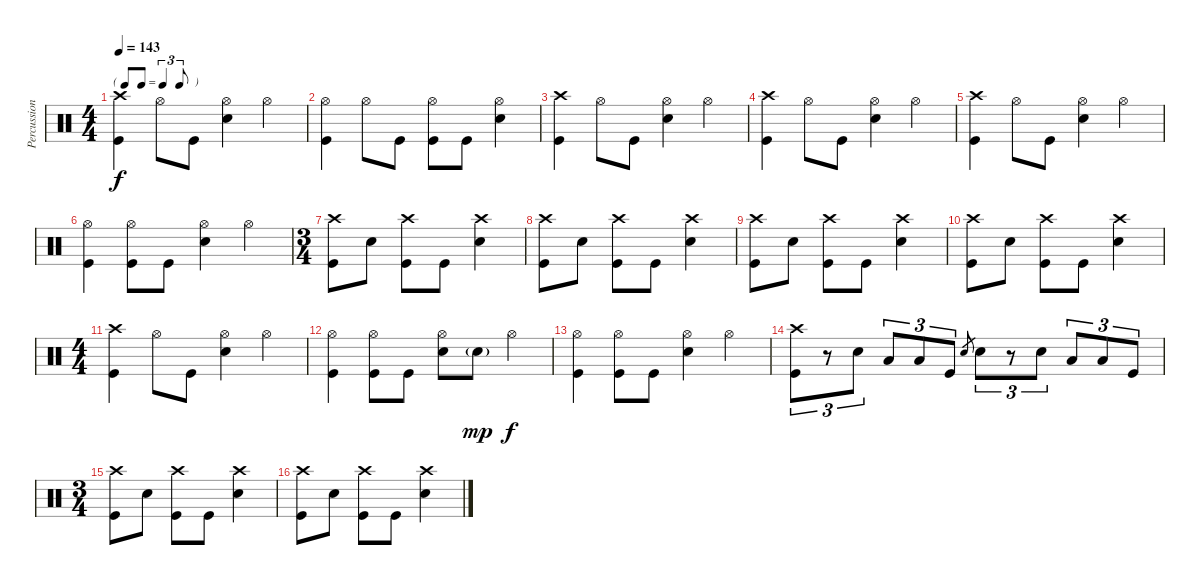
\track ("Percussion" "Percussion") {instrument percussion}
\staff {score}
\articulation defaults
\ts (4 4)
\tf triplet8th
\tempo 143
\clef neutral
\ks c
("Crash high (hit)" "Kick (hit)").4{dy f} "Hi-Hat (open)".8 "Kick (hit)".8 ("Hi-Hat (open)" "Electric Snare (hit)").4 "Hi-Hat (open)".4 |
("Hi-Hat (open)" "Kick (hit)").4 "Hi-Hat (open)".8 "Kick (hit)".8 ("Hi-Hat (open)" "Kick (hit)").8 "Kick (hit)".8 ("Hi-Hat (open)" "Electric Snare (hit)").4 |
("Crash high (hit)" "Kick (hit)").4 "Hi-Hat (open)".8 "Kick (hit)".8 ("Hi-Hat (open)" "Electric Snare (hit)").4 "Hi-Hat (open)".4 |
("Crash high (hit)" "Kick (hit)").4 "Hi-Hat (open)".8 "Kick (hit)".8 ("Hi-Hat (open)" "Electric Snare (hit)").4 "Hi-Hat (open)".4 |
("Crash high (hit)" "Kick (hit)").4 "Hi-Hat (open)".8 "Kick (hit)".8 ("Hi-Hat (open)" "Electric Snare (hit)").4 "Hi-Hat (open)".4 |
("Hi-Hat (open)" "Kick (hit)").4 ("Hi-Hat (open)" "Kick (hit)").8 "Kick (hit)".8 ("Hi-Hat (open)" "Electric Snare (hit)").4 "Hi-Hat (open)".4 |
\ts (3 4)
("Crash high (hit)" "Kick (hit)").8 "Electric Snare (hit)".8 ("Crash high (hit)" "Kick (hit)").8 "Kick (hit)".8 ("Crash high (hit)" "Electric Snare (hit)").4 |
("Crash high (hit)" "Kick (hit)").8 "Electric Snare (hit)".8 ("Crash high (hit)" "Kick (hit)").8 "Kick (hit)".8 ("Crash high (hit)" "Electric Snare (hit)").4 |
("Crash high (hit)" "Kick (hit)").8 "Electric Snare (hit)".8 ("Crash high (hit)" "Kick (hit)").8 "Kick (hit)".8 ("Crash high (hit)" "Electric Snare (hit)").4 |
("Crash high (hit)" "Kick (hit)").8 "Electric Snare (hit)".8 ("Crash high (hit)" "Kick (hit)").8 "Kick (hit)".8 ("Crash high (hit)" "Electric Snare (hit)").4 |
\ts (4 4)
("Crash high (hit)" "Kick (hit)").4 "Hi-Hat (open)".8 "Kick (hit)".8 ("Hi-Hat (open)" "Electric Snare (hit)").4 "Hi-Hat (open)".4 |
("Hi-Hat (open)" "Kick (hit)").4 ("Hi-Hat (open)" "Kick (hit)").8 "Kick (hit)".8 ("Hi-Hat (open)" "Electric Snare (hit)").8 "Electric Snare (hit)"{g}.8{dy mp} "Hi-Hat (open)".4{dy f} |
("Hi-Hat (open)" "Kick (hit)").4 ("Hi-Hat (open)" "Kick (hit)").8 "Kick (hit)".8 ("Hi-Hat (open)" "Electric Snare (hit)").4 "Hi-Hat (open)".4 |
("Crash high (hit)" "Kick (hit)").8{tu (3 2)} r.8{tu (3 2)} "Electric Snare (hit)".8{tu (3 2)} "Low Tom (hit)".8{tu (3 2)} "Low Floor Tom (hit)".8{tu (3 2)} "Kick (hit)".8{tu (3 2)} "Electric Snare (hit)".8{gr} "Electric Snare (hit)".8{tu (3 2)} r.8{tu (3 2)} "Electric Snare (hit)".8{tu (3 2)} "Low Tom (hit)".8{tu (3 2)} "Low Floor Tom (hit)".8{tu (3 2)} "Kick (hit)".8{tu (3 2)} |
\ts (3 4)
("Crash high (hit)" "Kick (hit)").8 "Electric Snare (hit)".8 ("Crash high (hit)" "Kick (hit)").8 "Kick (hit)".8 ("Crash high (hit)" "Electric Snare (hit)").4 |
("Crash high (hit)" "Kick (hit)").8 "Electric Snare (hit)".8 ("Crash high (hit)" "Kick (hit)").8 "Kick (hit)".8 ("Crash high (hit)" "Electric Snare (hit)").4
